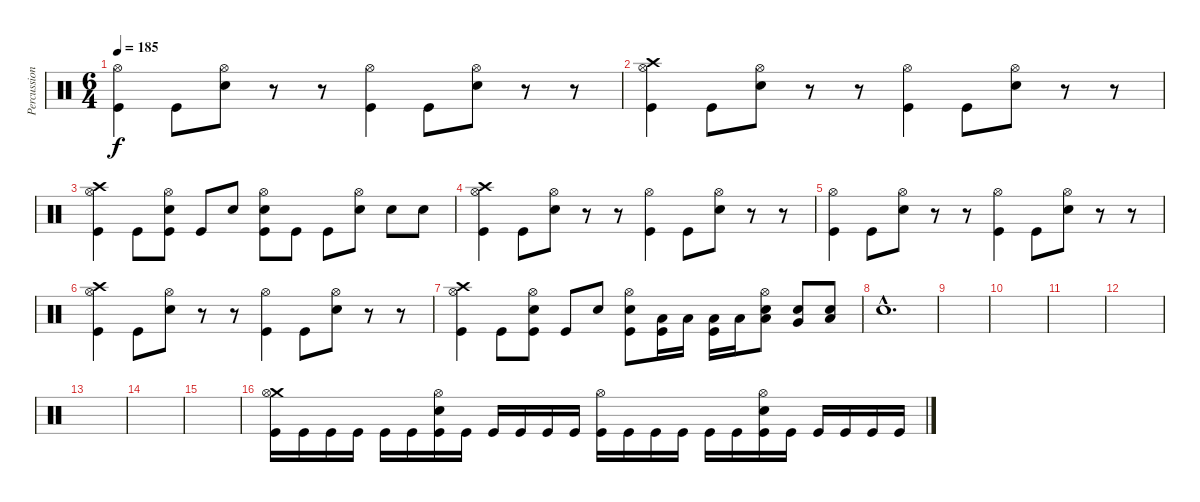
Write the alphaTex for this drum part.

\track ("Percussion" "Percussion") {instrument percussion}
\staff {score}
\articulation defaults
\ts (6 4)
\tempo 185
\clef neutral
\ks c
("Hi-Hat (open)" "Kick (hit)").4{dy f} "Kick (hit)".8 ("Hi-Hat (open)" "Electric Snare (hit)").8 r.8 r.8 ("Hi-Hat (open)" "Kick (hit)").4 "Kick (hit)".8 ("Hi-Hat (open)" "Electric Snare (hit)").8 r.8 r.8 |
("Crash high (hit)" "Hi-Hat (open)" "Kick (hit)").4 "Kick (hit)".8 ("Hi-Hat (open)" "Electric Snare (hit)").8 r.8 r.8 ("Hi-Hat (open)" "Kick (hit)").4 "Kick (hit)".8 ("Hi-Hat (open)" "Electric Snare (hit)").8 r.8 r.8 |
("Crash high (hit)" "Hi-Hat (open)" "Kick (hit)").4 "Kick (hit)".8 ("Hi-Hat (open)" "Electric Snare (hit)" "Kick (hit)").8 "Kick (hit)".8 "Electric Snare (hit)".8 ("Hi-Hat (open)" "Electric Snare (hit)" "Kick (hit)").8 "Kick (hit)".8 "Kick (hit)".8 ("Hi-Hat (open)" "Electric Snare (hit)").8 "Electric Snare (hit)".8 "Electric Snare (hit)".8 |
("Crash high (hit)" "Hi-Hat (open)" "Kick (hit)").4 "Kick (hit)".8 ("Hi-Hat (open)" "Electric Snare (hit)").8 r.8 r.8 ("Hi-Hat (open)" "Kick (hit)").4 "Kick (hit)".8 ("Hi-Hat (open)" "Electric Snare (hit)").8 r.8 r.8 |
("Hi-Hat (open)" "Kick (hit)").4 "Kick (hit)".8 ("Hi-Hat (open)" "Electric Snare (hit)").8 r.8 r.8 ("Hi-Hat (open)" "Kick (hit)").4 "Kick (hit)".8 ("Hi-Hat (open)" "Electric Snare (hit)").8 r.8 r.8 |
("Crash high (hit)" "Hi-Hat (open)" "Kick (hit)").4 "Kick (hit)".8 ("Hi-Hat (open)" "Electric Snare (hit)").8 r.8 r.8 ("Hi-Hat (open)" "Kick (hit)").4 "Kick (hit)".8 ("Hi-Hat (open)" "Electric Snare (hit)").8 r.8 r.8 |
("Crash high (hit)" "Hi-Hat (open)" "Kick (hit)").4 "Kick (hit)".8 ("Hi-Hat (open)" "Electric Snare (hit)" "Kick (hit)").8 "Kick (hit)".8 "Electric Snare (hit)".8 ("Hi-Hat (open)" "Electric Snare (hit)" "Kick (hit)").8 ("Low Floor Tom (hit)" "Kick (hit)").16 "Low Floor Tom (hit)".16 ("Low Floor Tom (hit)" "Kick (hit)").16 "Low Floor Tom (hit)".16 ("Hi-Hat (open)" "Low Tom (hit)" "Electric Snare (hit)").8 ("Very Low Tom (hit)" "Electric Snare (hit)").8 ("Low Floor Tom (hit)" "Electric Snare (hit)").8 |
"Electric Snare (hit)"{hac}.1{d} |
|
|
|
|
|
|
|
("Crash medium (hit)" "Hi-Hat (open)" "Kick (hit)").16 "Kick (hit)".16 "Kick (hit)".16 "Kick (hit)".16 "Kick (hit)".16 "Kick (hit)".16 ("Hi-Hat (open)" "Electric Snare (hit)" "Kick (hit)").16 "Kick (hit)".16 "Kick (hit)".16 "Kick (hit)".16 "Kick (hit)".16 "Kick (hit)".16 ("Hi-Hat (open)" "Kick (hit)").16 "Kick (hit)".16 "Kick (hit)".16 "Kick (hit)".16 "Kick (hit)".16 "Kick (hit)".16 ("Electric Snare (hit)" "Hi-Hat (open)" "Kick (hit)").16 "Kick (hit)".16 "Kick (hit)".16 "Kick (hit)".16 "Kick (hit)".16 "Kick (hit)".16
